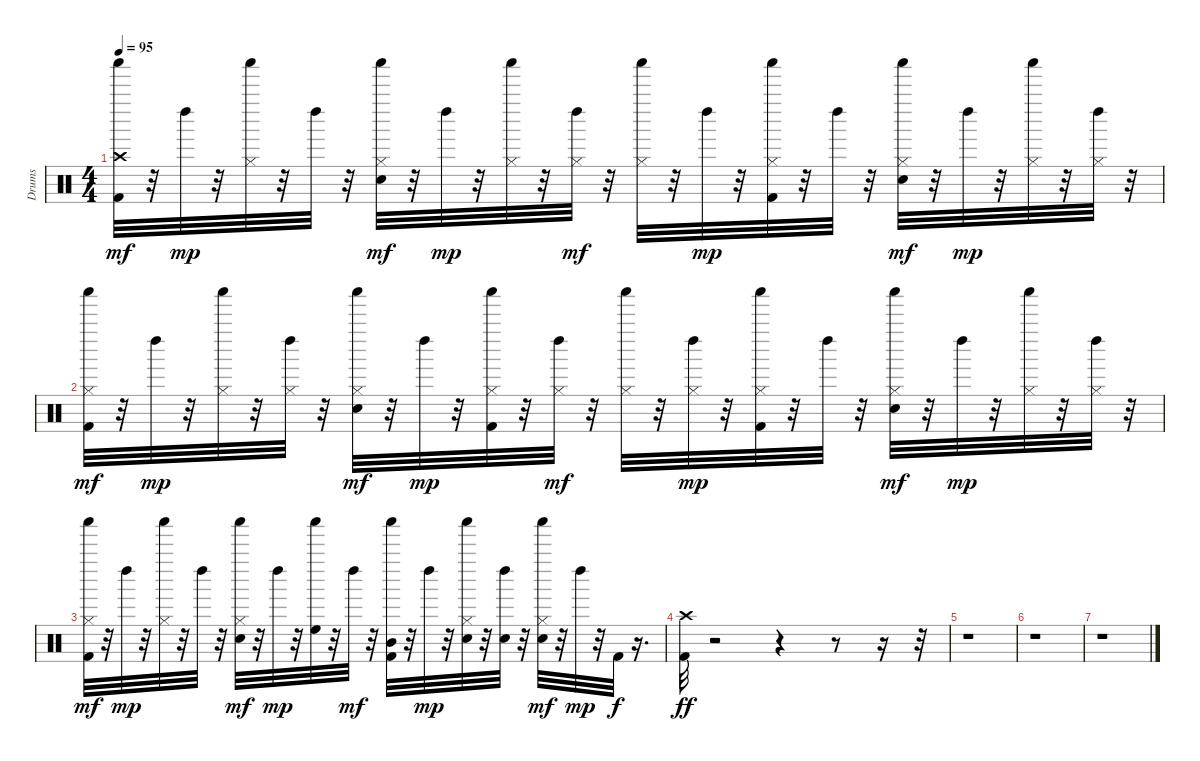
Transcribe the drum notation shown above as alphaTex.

\track ("Drums" "Drums") {instrument percussion}
\staff {score}
\articulation defaults
\ts (4 4)
\tempo 95
\clef neutral
\ks c
("Kick (hit) 2" "Crash high (hit)" "Shaker (hit)").32{dy mf} r.32 "Left Maraca (hit)".32{dy mp} r.32 ("Hi-Hat (closed)" "Shaker (hit)").32 r.32 "Left Maraca (hit)".32 r.32 ("Electric Snare (hit)" "Hi-Hat (closed)" "Shaker (hit)").32{dy mf} r.32 "Left Maraca (hit)".32{dy mp} r.32 ("Hi-Hat (closed)" "Shaker (hit)").32 r.32 ("Hi-Hat (closed)" "Left Maraca (hit)").32{dy mf} r.32 ("Hi-Hat (closed)" "Shaker (hit)").32 r.32 "Left Maraca (hit)".32{dy mp} r.32 ("Kick (hit) 2" "Hi-Hat (closed)" "Shaker (hit)").32 r.32 "Left Maraca (hit)".32 r.32 ("Electric Snare (hit)" "Hi-Hat (closed)" "Shaker (hit)").32{dy mf} r.32 "Left Maraca (hit)".32{dy mp} r.32 ("Hi-Hat (closed)" "Shaker (hit)").32 r.32 ("Hi-Hat (closed)" "Left Maraca (hit)").32 r.32 |
("Kick (hit) 2" "Hi-Hat (closed)" "Shaker (hit)").32{dy mf} r.32 "Left Maraca (hit)".32{dy mp} r.32 ("Hi-Hat (closed)" "Shaker (hit)").32 r.32 ("Hi-Hat (closed)" "Left Maraca (hit)").32 r.32 ("Electric Snare (hit)" "Hi-Hat (closed)" "Shaker (hit)").32{dy mf} r.32 "Left Maraca (hit)".32{dy mp} r.32 ("Kick (hit) 2" "Hi-Hat (closed)" "Shaker (hit)").32 r.32 ("Hi-Hat (closed)" "Left Maraca (hit)").32{dy mf} r.32 ("Hi-Hat (closed)" "Shaker (hit)").32 r.32 ("Hi-Hat (closed)" "Left Maraca (hit)").32{dy mp} r.32 ("Kick (hit) 2" "Hi-Hat (closed)" "Shaker (hit)").32 r.32 "Left Maraca (hit)".32 r.32 ("Electric Snare (hit)" "Hi-Hat (closed)" "Shaker (hit)").32{dy mf} r.32 "Left Maraca (hit)".32{dy mp} r.32 ("Hi-Hat (closed)" "Shaker (hit)").32 r.32 ("Hi-Hat (closed)" "Left Maraca (hit)").32 r.32 |
("Kick (hit) 2" "Hi-Hat (closed)" "Shaker (hit)").32{dy mf} r.32 "Left Maraca (hit)".32{dy mp} r.32 ("Hi-Hat (closed)" "Shaker (hit)").32 r.32 "Left Maraca (hit)".32 r.32 ("Electric Snare (hit)" "Hi-Hat (closed)" "Shaker (hit)").32{dy mf} r.32 "Left Maraca (hit)".32{dy mp} r.32 ("High Floor Tom (hit)" "Shaker (hit)").32 r.32 "Left Maraca (hit)".32{dy mf} r.32 ("Kick (hit) 2" "Mid Tom (hit)" "Shaker (hit)").32 r.32 "Left Maraca (hit)".32{dy mp} r.32 ("Electric Snare (hit)" "Hi-Hat (closed)" "Shaker (hit)").32 r.32 ("Electric Snare (hit)" "Left Maraca (hit)").32 r.32 ("Electric Snare (hit)" "Hi-Hat (closed)" "Shaker (hit)").32{dy mf} r.32 "Left Maraca (hit)".32{dy mp} r.32 "Kick (hit) 2".32{dy f} r.16{d} |
("Kick (hit) 2" "Crash high (hit)").32{dy ff} r.2 r.4 r.8 r.16 r.32 |
r.1 |
r.1 |
r.1
